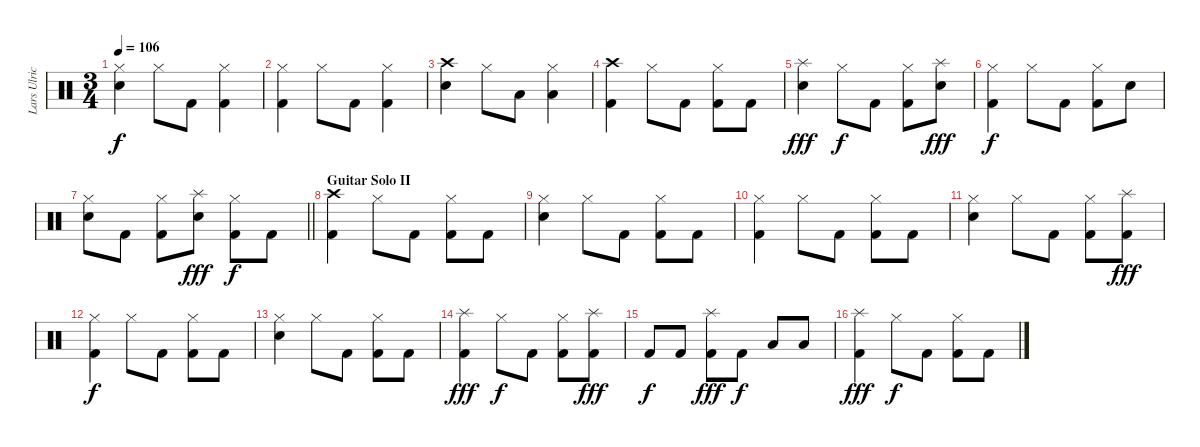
\track ("Lars Ulrich [Drums]" "Lars Ulric") {instrument percussion}
\staff {score}
\articulation defaults
\ts (3 4)
\tempo 106
\clef neutral
\ks c
("Hi-Hat (closed)" "Electric Snare (hit)").4{dy f} "Hi-Hat (closed)".8 "Kick (hit) 2".8 ("Hi-Hat (closed)" "Kick (hit) 2").4 |
("Hi-Hat (closed)" "Kick (hit) 2").4 "Hi-Hat (closed)".8 "Kick (hit) 2".8 ("Hi-Hat (closed)" "Kick (hit) 2").4 |
("Crash high (hit)" "Electric Snare (hit)").4 "Hi-Hat (closed)".8 "Low Tom (hit)".8 ("Hi-Hat (closed)" "Low Tom (hit)").4 |
("Crash high (hit)" "Kick (hit) 2").4 "Hi-Hat (closed)".8 "Kick (hit) 2".8 ("Hi-Hat (closed)" "Kick (hit) 2").8 "Kick (hit) 2".8 |
("Splash (hit)" "Electric Snare (hit)").4{dy fff} "Hi-Hat (closed)".8{dy f} "Kick (hit) 2".8 ("Hi-Hat (closed)" "Kick (hit) 2").8 ("Splash (hit)" "Electric Snare (hit)").8{dy fff} |
("Hi-Hat (closed)" "Kick (hit) 2").4{dy f} "Hi-Hat (closed)".8 "Kick (hit) 2".8 ("Hi-Hat (closed)" "Kick (hit) 2").8 "Electric Snare (hit)".8 |
\barLineRight lightlight
("Hi-Hat (closed)" "Electric Snare (hit)").8 "Kick (hit) 2".8 ("Hi-Hat (closed)" "Kick (hit) 2").8 ("Splash (hit)" "Electric Snare (hit)").8{dy fff} ("Hi-Hat (closed)" "Kick (hit) 2").8{dy f} "Kick (hit) 2".8 |
\section ("" "Guitar Solo II")
("Crash high (hit)" "Kick (hit) 2").4 "Hi-Hat (closed)".8 "Kick (hit) 2".8 ("Hi-Hat (closed)" "Kick (hit) 2").8 "Kick (hit) 2".8 |
("Hi-Hat (closed)" "Electric Snare (hit)").4 "Hi-Hat (closed)".8 "Kick (hit) 2".8 ("Hi-Hat (closed)" "Kick (hit) 2").8 "Kick (hit) 2".8 |
("Hi-Hat (closed)" "Kick (hit) 2").4 "Hi-Hat (closed)".8 "Kick (hit) 2".8 ("Hi-Hat (closed)" "Kick (hit) 2").8 "Kick (hit) 2".8 |
("Hi-Hat (closed)" "Electric Snare (hit)").4 "Hi-Hat (closed)".8 "Kick (hit) 2".8 ("Hi-Hat (closed)" "Kick (hit) 2").8 ("Splash (hit)" "Kick (hit) 2").8{dy fff} |
("Hi-Hat (closed)" "Kick (hit) 2").4{dy f} "Hi-Hat (closed)".8 "Kick (hit) 2".8 ("Hi-Hat (closed)" "Kick (hit) 2").8 "Kick (hit) 2".8 |
("Hi-Hat (closed)" "Electric Snare (hit)").4 "Hi-Hat (closed)".8 "Kick (hit) 2".8 ("Hi-Hat (closed)" "Kick (hit) 2").8 "Kick (hit) 2".8 |
("Splash (hit)" "Kick (hit) 2").4{dy fff} "Hi-Hat (closed)".8{dy f} "Kick (hit) 2".8 ("Hi-Hat (closed)" "Kick (hit) 2").8 ("Splash (hit)" "Kick (hit) 2").8{dy fff} |
"Kick (hit) 2".8{dy f} "Kick (hit) 2".8 ("Splash (hit)" "Kick (hit) 2").8{dy fff} "Kick (hit) 2".8{dy f} "Low Tom (hit)".8 "Low Tom (hit)".8 |
("Splash (hit)" "Kick (hit) 2").4{dy fff} "Hi-Hat (closed)".8{dy f} "Kick (hit) 2".8 ("Hi-Hat (closed)" "Kick (hit) 2").8 "Kick (hit) 2".8
